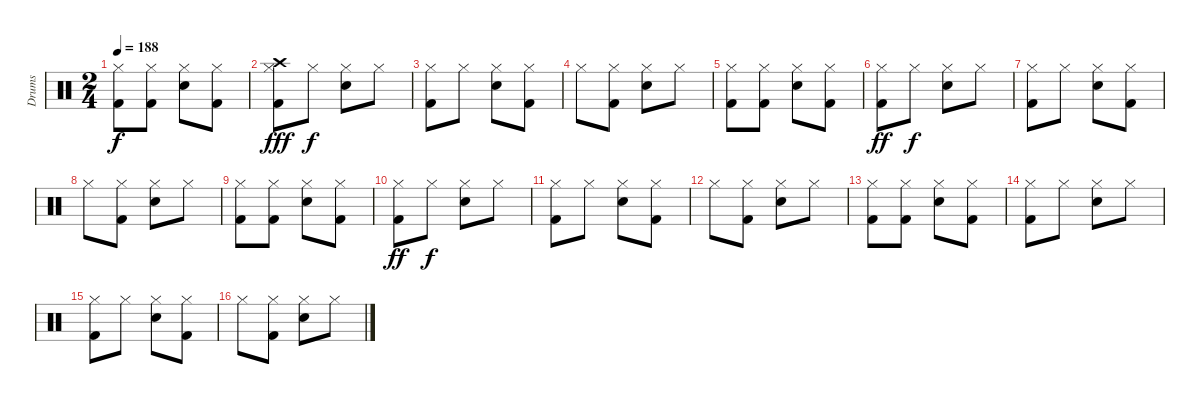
\track ("Drums" "Drums") {instrument percussion}
\staff {score}
\articulation defaults
\ts (2 4)
\tempo 188
\clef neutral
\ks c
("Hi-Hat (closed)" "Kick (hit) 2").8{dy f} ("Hi-Hat (closed)" "Kick (hit) 2").8 ("Hi-Hat (closed)" "Snare (hit) 2").8 ("Hi-Hat (closed)" "Kick (hit) 2").8 |
("Crash high (hit)" "Hi-Hat (closed)" "Kick (hit) 2").8{dy fff} "Hi-Hat (closed)".8{dy f} ("Hi-Hat (closed)" "Snare (hit) 2").8 "Hi-Hat (closed)".8 |
("Hi-Hat (closed)" "Kick (hit) 2").8 "Hi-Hat (closed)".8 ("Hi-Hat (closed)" "Snare (hit) 2").8 ("Hi-Hat (closed)" "Kick (hit) 2").8 |
"Hi-Hat (closed)".8 ("Hi-Hat (closed)" "Kick (hit) 2").8 ("Hi-Hat (closed)" "Snare (hit) 2").8 "Hi-Hat (closed)".8 |
("Hi-Hat (closed)" "Kick (hit) 2").8 ("Hi-Hat (closed)" "Kick (hit) 2").8 ("Hi-Hat (closed)" "Snare (hit) 2").8 ("Hi-Hat (closed)" "Kick (hit) 2").8 |
("Hi-Hat (closed)" "Kick (hit) 2").8{dy ff} "Hi-Hat (closed)".8{dy f} ("Hi-Hat (closed)" "Snare (hit) 2").8 "Hi-Hat (closed)".8 |
("Hi-Hat (closed)" "Kick (hit) 2").8 "Hi-Hat (closed)".8 ("Hi-Hat (closed)" "Snare (hit) 2").8 ("Hi-Hat (closed)" "Kick (hit) 2").8 |
"Hi-Hat (closed)".8 ("Hi-Hat (closed)" "Kick (hit) 2").8 ("Hi-Hat (closed)" "Snare (hit) 2").8 "Hi-Hat (closed)".8 |
("Hi-Hat (closed)" "Kick (hit) 2").8 ("Hi-Hat (closed)" "Kick (hit) 2").8 ("Hi-Hat (closed)" "Snare (hit) 2").8 ("Hi-Hat (closed)" "Kick (hit) 2").8 |
("Hi-Hat (closed)" "Kick (hit) 2").8{dy ff} "Hi-Hat (closed)".8{dy f} ("Hi-Hat (closed)" "Snare (hit) 2").8 "Hi-Hat (closed)".8 |
("Hi-Hat (closed)" "Kick (hit) 2").8 "Hi-Hat (closed)".8 ("Hi-Hat (closed)" "Snare (hit) 2").8 ("Hi-Hat (closed)" "Kick (hit) 2").8 |
"Hi-Hat (closed)".8 ("Hi-Hat (closed)" "Kick (hit) 2").8 ("Hi-Hat (closed)" "Snare (hit) 2").8 "Hi-Hat (closed)".8 |
("Hi-Hat (closed)" "Kick (hit) 2").8 ("Hi-Hat (closed)" "Kick (hit) 2").8 ("Hi-Hat (closed)" "Snare (hit) 2").8 ("Hi-Hat (closed)" "Kick (hit) 2").8 |
("Hi-Hat (closed)" "Kick (hit) 2").8 "Hi-Hat (closed)".8 ("Hi-Hat (closed)" "Snare (hit) 2").8 "Hi-Hat (closed)".8 |
("Hi-Hat (closed)" "Kick (hit) 2").8 "Hi-Hat (closed)".8 ("Hi-Hat (closed)" "Snare (hit) 2").8 ("Hi-Hat (closed)" "Kick (hit) 2").8 |
"Hi-Hat (closed)".8 ("Hi-Hat (closed)" "Kick (hit) 2").8 ("Hi-Hat (closed)" "Snare (hit) 2").8 "Hi-Hat (closed)".8
